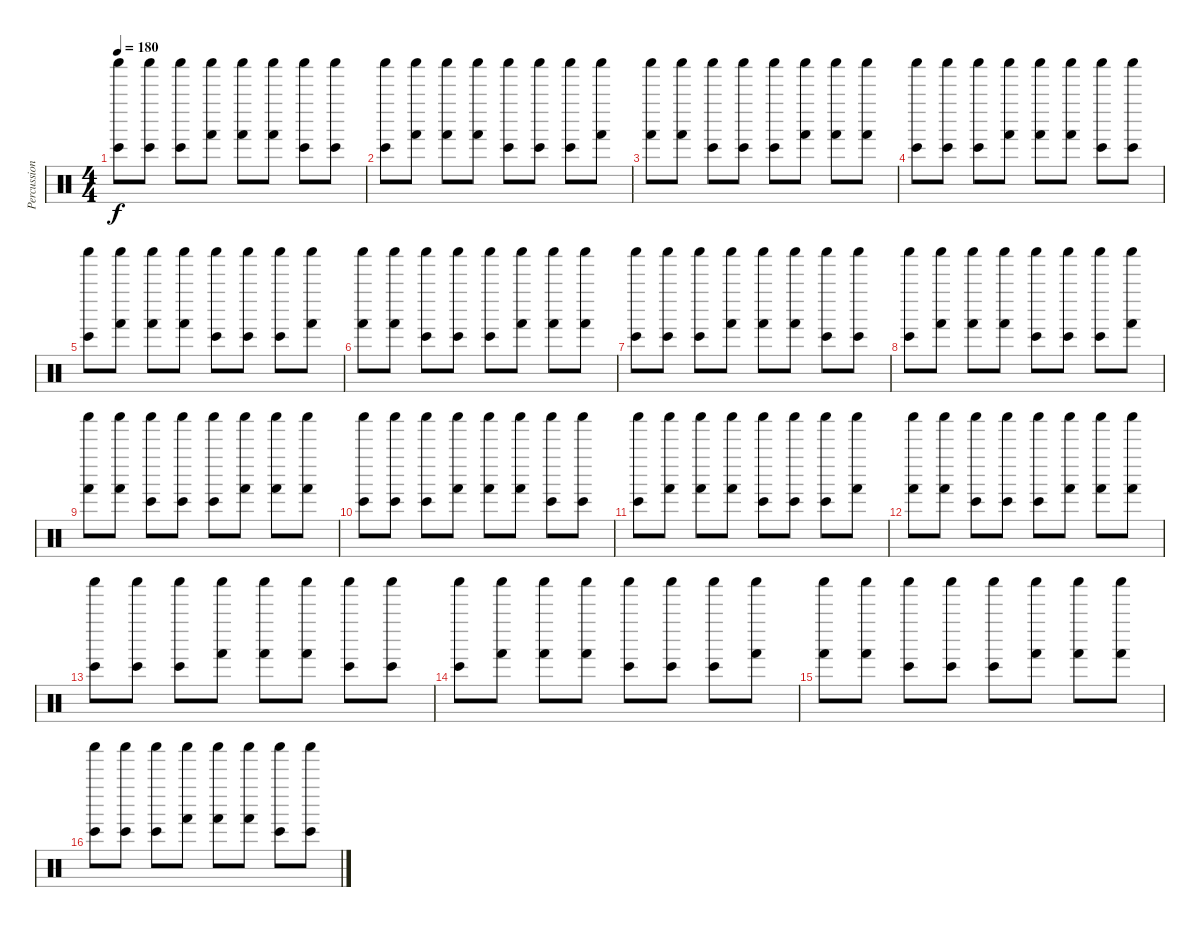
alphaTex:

\track ("Percussion" "Percussion") {instrument percussion}
\staff {score}
\articulation defaults
\ts (4 4)
\tempo 180
\clef neutral
\ks c
("Shaker (hit)" "Bongo High (hit)").8{dy f} ("Shaker (hit)" "Bongo High (hit)").8 ("Shaker (hit)" "Bongo High (hit)").8 ("Shaker (hit)" "Hand (hit)").8 ("Shaker (hit)" "Hand (hit)").8 ("Shaker (hit)" "Hand (hit)").8 ("Shaker (hit)" "Bongo High (hit)").8 ("Shaker (hit)" "Bongo High (hit)").8 |
("Shaker (hit)" "Bongo High (hit)").8 ("Shaker (hit)" "Hand (hit)").8 ("Shaker (hit)" "Hand (hit)").8 ("Shaker (hit)" "Hand (hit)").8 ("Shaker (hit)" "Bongo High (hit)").8 ("Shaker (hit)" "Bongo High (hit)").8 ("Shaker (hit)" "Bongo High (hit)").8 ("Shaker (hit)" "Hand (hit)").8 |
("Shaker (hit)" "Hand (hit)").8 ("Shaker (hit)" "Hand (hit)").8 ("Shaker (hit)" "Bongo High (hit)").8 ("Shaker (hit)" "Bongo High (hit)").8 ("Shaker (hit)" "Bongo High (hit)").8 ("Shaker (hit)" "Hand (hit)").8 ("Shaker (hit)" "Hand (hit)").8 ("Shaker (hit)" "Hand (hit)").8 |
("Shaker (hit)" "Bongo High (hit)").8 ("Shaker (hit)" "Bongo High (hit)").8 ("Shaker (hit)" "Bongo High (hit)").8 ("Shaker (hit)" "Hand (hit)").8 ("Shaker (hit)" "Hand (hit)").8 ("Shaker (hit)" "Hand (hit)").8 ("Shaker (hit)" "Bongo High (hit)").8 ("Shaker (hit)" "Bongo High (hit)").8 |
("Shaker (hit)" "Bongo High (hit)").8 ("Shaker (hit)" "Hand (hit)").8 ("Shaker (hit)" "Hand (hit)").8 ("Shaker (hit)" "Hand (hit)").8 ("Shaker (hit)" "Bongo High (hit)").8 ("Shaker (hit)" "Bongo High (hit)").8 ("Shaker (hit)" "Bongo High (hit)").8 ("Shaker (hit)" "Hand (hit)").8 |
("Shaker (hit)" "Hand (hit)").8 ("Shaker (hit)" "Hand (hit)").8 ("Shaker (hit)" "Bongo High (hit)").8 ("Shaker (hit)" "Bongo High (hit)").8 ("Shaker (hit)" "Bongo High (hit)").8 ("Shaker (hit)" "Hand (hit)").8 ("Shaker (hit)" "Hand (hit)").8 ("Shaker (hit)" "Hand (hit)").8 |
("Shaker (hit)" "Bongo High (hit)").8 ("Shaker (hit)" "Bongo High (hit)").8 ("Shaker (hit)" "Bongo High (hit)").8 ("Shaker (hit)" "Hand (hit)").8 ("Shaker (hit)" "Hand (hit)").8 ("Shaker (hit)" "Hand (hit)").8 ("Shaker (hit)" "Bongo High (hit)").8 ("Shaker (hit)" "Bongo High (hit)").8 |
("Shaker (hit)" "Bongo High (hit)").8 ("Shaker (hit)" "Hand (hit)").8 ("Shaker (hit)" "Hand (hit)").8 ("Shaker (hit)" "Hand (hit)").8 ("Shaker (hit)" "Bongo High (hit)").8 ("Shaker (hit)" "Bongo High (hit)").8 ("Shaker (hit)" "Bongo High (hit)").8 ("Shaker (hit)" "Hand (hit)").8 |
("Shaker (hit)" "Hand (hit)").8 ("Shaker (hit)" "Hand (hit)").8 ("Shaker (hit)" "Bongo High (hit)").8 ("Shaker (hit)" "Bongo High (hit)").8 ("Shaker (hit)" "Bongo High (hit)").8 ("Shaker (hit)" "Hand (hit)").8 ("Shaker (hit)" "Hand (hit)").8 ("Shaker (hit)" "Hand (hit)").8 |
("Shaker (hit)" "Bongo High (hit)").8 ("Shaker (hit)" "Bongo High (hit)").8 ("Shaker (hit)" "Bongo High (hit)").8 ("Shaker (hit)" "Hand (hit)").8 ("Shaker (hit)" "Hand (hit)").8 ("Shaker (hit)" "Hand (hit)").8 ("Shaker (hit)" "Bongo High (hit)").8 ("Shaker (hit)" "Bongo High (hit)").8 |
("Shaker (hit)" "Bongo High (hit)").8 ("Shaker (hit)" "Hand (hit)").8 ("Shaker (hit)" "Hand (hit)").8 ("Shaker (hit)" "Hand (hit)").8 ("Shaker (hit)" "Bongo High (hit)").8 ("Shaker (hit)" "Bongo High (hit)").8 ("Shaker (hit)" "Bongo High (hit)").8 ("Shaker (hit)" "Hand (hit)").8 |
("Shaker (hit)" "Hand (hit)").8 ("Shaker (hit)" "Hand (hit)").8 ("Shaker (hit)" "Bongo High (hit)").8 ("Shaker (hit)" "Bongo High (hit)").8 ("Shaker (hit)" "Bongo High (hit)").8 ("Shaker (hit)" "Hand (hit)").8 ("Shaker (hit)" "Hand (hit)").8 ("Shaker (hit)" "Hand (hit)").8 |
("Shaker (hit)" "Bongo High (hit)").8 ("Shaker (hit)" "Bongo High (hit)").8 ("Shaker (hit)" "Bongo High (hit)").8 ("Shaker (hit)" "Hand (hit)").8 ("Shaker (hit)" "Hand (hit)").8 ("Shaker (hit)" "Hand (hit)").8 ("Shaker (hit)" "Bongo High (hit)").8 ("Shaker (hit)" "Bongo High (hit)").8 |
("Shaker (hit)" "Bongo High (hit)").8 ("Shaker (hit)" "Hand (hit)").8 ("Shaker (hit)" "Hand (hit)").8 ("Shaker (hit)" "Hand (hit)").8 ("Shaker (hit)" "Bongo High (hit)").8 ("Shaker (hit)" "Bongo High (hit)").8 ("Shaker (hit)" "Bongo High (hit)").8 ("Shaker (hit)" "Hand (hit)").8 |
("Shaker (hit)" "Hand (hit)").8 ("Shaker (hit)" "Hand (hit)").8 ("Shaker (hit)" "Bongo High (hit)").8 ("Shaker (hit)" "Bongo High (hit)").8 ("Shaker (hit)" "Bongo High (hit)").8 ("Shaker (hit)" "Hand (hit)").8 ("Shaker (hit)" "Hand (hit)").8 ("Shaker (hit)" "Hand (hit)").8 |
("Shaker (hit)" "Bongo High (hit)").8 ("Shaker (hit)" "Bongo High (hit)").8 ("Shaker (hit)" "Bongo High (hit)").8 ("Shaker (hit)" "Hand (hit)").8 ("Shaker (hit)" "Hand (hit)").8 ("Shaker (hit)" "Hand (hit)").8 ("Shaker (hit)" "Bongo High (hit)").8 ("Shaker (hit)" "Bongo High (hit)").8
